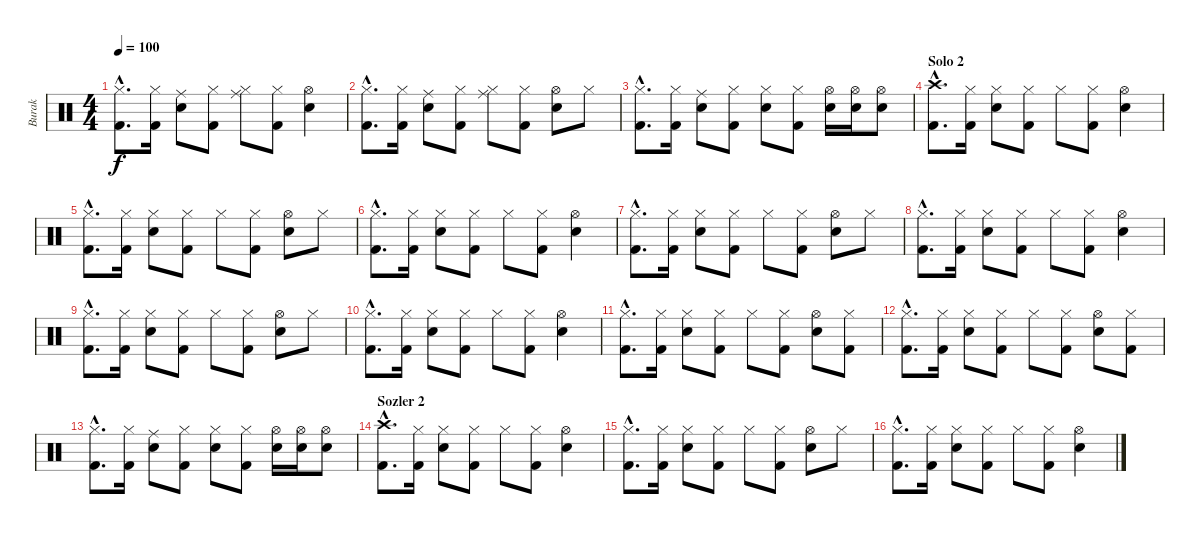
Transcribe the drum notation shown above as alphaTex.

\track ("Burak" "Burak") {instrument percussion}
\staff {score}
\articulation defaults
\ts (4 4)
\tempo 100
\clef neutral
\ks c
("Kick (hit) 2"{hac} "Hi-Hat (closed)"{hac}).8{d dy f} ("Kick (hit) 2" "Hi-Hat (closed)").16 ("Electric Snare (hit)" "Ride (middle)").8 ("Kick (hit) 2" "Hi-Hat (closed)").8 ("Ride (middle)" "Hi-Hat (closed)").8 ("Kick (hit) 2" "Hi-Hat (closed)").8 ("Electric Snare (hit)" "Hi-Hat (open)").4 |
("Kick (hit) 2"{hac} "Hi-Hat (closed)"{hac}).8{d} ("Kick (hit) 2" "Hi-Hat (closed)").16 ("Electric Snare (hit)" "Ride (middle)").8 ("Kick (hit) 2" "Hi-Hat (closed)").8 ("Ride (middle)" "Hi-Hat (closed)").8 ("Kick (hit) 2" "Hi-Hat (closed)").8 ("Electric Snare (hit)" "Hi-Hat (open)").8 "Hi-Hat (closed)".8 |
("Kick (hit) 2"{hac} "Hi-Hat (closed)"{hac}).8{d} ("Kick (hit) 2" "Hi-Hat (closed)").16 ("Electric Snare (hit)" "Ride (middle)").8 ("Kick (hit) 2" "Hi-Hat (closed)").8 ("Electric Snare (hit)" "Hi-Hat (closed)").8 ("Kick (hit) 2" "Hi-Hat (closed)").8 ("Electric Snare (hit)" "Hi-Hat (open)").16 ("Electric Snare (hit)" "Hi-Hat (open)").16 ("Electric Snare (hit)" "Hi-Hat (open)").8 |
\section ("" "Solo 2")
("Crash high (hit)"{hac} "Kick (hit) 2"{hac}).8{d} ("Kick (hit) 2" "Hi-Hat (closed)").16 ("Electric Snare (hit)" "Hi-Hat (closed)").8 ("Kick (hit) 2" "Hi-Hat (closed)").8 "Hi-Hat (closed)".8 ("Kick (hit) 2" "Hi-Hat (closed)").8 ("Electric Snare (hit)" "Hi-Hat (open)").4 |
("Kick (hit) 2"{hac} "Hi-Hat (closed)"{hac}).8{d} ("Kick (hit) 2" "Hi-Hat (closed)").16 ("Electric Snare (hit)" "Hi-Hat (closed)").8 ("Kick (hit) 2" "Hi-Hat (closed)").8 "Hi-Hat (closed)".8 ("Kick (hit) 2" "Hi-Hat (closed)").8 ("Electric Snare (hit)" "Hi-Hat (open)").8 "Hi-Hat (closed)".8 |
("Kick (hit) 2"{hac} "Hi-Hat (closed)"{hac}).8{d} ("Kick (hit) 2" "Hi-Hat (closed)").16 ("Electric Snare (hit)" "Hi-Hat (closed)").8 ("Kick (hit) 2" "Hi-Hat (closed)").8 "Hi-Hat (closed)".8 ("Kick (hit) 2" "Hi-Hat (closed)").8 ("Electric Snare (hit)" "Hi-Hat (open)").4 |
("Kick (hit) 2"{hac} "Hi-Hat (closed)"{hac}).8{d} ("Kick (hit) 2" "Hi-Hat (closed)").16 ("Electric Snare (hit)" "Hi-Hat (closed)").8 ("Kick (hit) 2" "Hi-Hat (closed)").8 "Hi-Hat (closed)".8 ("Kick (hit) 2" "Hi-Hat (closed)").8 ("Electric Snare (hit)" "Hi-Hat (open)").8 "Hi-Hat (closed)".8 |
("Kick (hit) 2"{hac} "Hi-Hat (closed)"{hac}).8{d} ("Kick (hit) 2" "Hi-Hat (closed)").16 ("Electric Snare (hit)" "Hi-Hat (closed)").8 ("Kick (hit) 2" "Hi-Hat (closed)").8 "Hi-Hat (closed)".8 ("Kick (hit) 2" "Hi-Hat (closed)").8 ("Electric Snare (hit)" "Hi-Hat (open)").4 |
("Kick (hit) 2"{hac} "Hi-Hat (closed)"{hac}).8{d} ("Kick (hit) 2" "Hi-Hat (closed)").16 ("Electric Snare (hit)" "Hi-Hat (closed)").8 ("Kick (hit) 2" "Hi-Hat (closed)").8 "Hi-Hat (closed)".8 ("Kick (hit) 2" "Hi-Hat (closed)").8 ("Electric Snare (hit)" "Hi-Hat (open)").8 "Hi-Hat (closed)".8 |
("Kick (hit) 2"{hac} "Hi-Hat (closed)"{hac}).8{d} ("Kick (hit) 2" "Hi-Hat (closed)").16 ("Electric Snare (hit)" "Hi-Hat (closed)").8 ("Kick (hit) 2" "Hi-Hat (closed)").8 "Hi-Hat (closed)".8 ("Kick (hit) 2" "Hi-Hat (closed)").8 ("Electric Snare (hit)" "Hi-Hat (open)").4 |
("Kick (hit) 2"{hac} "Hi-Hat (closed)"{hac}).8{d} ("Kick (hit) 2" "Hi-Hat (closed)").16 ("Electric Snare (hit)" "Hi-Hat (closed)").8 ("Kick (hit) 2" "Hi-Hat (closed)").8 "Hi-Hat (closed)".8 ("Kick (hit) 2" "Hi-Hat (closed)").8 ("Electric Snare (hit)" "Hi-Hat (open)").8 ("Kick (hit) 2" "Hi-Hat (closed)").8 |
("Kick (hit) 2"{hac} "Hi-Hat (closed)"{hac}).8{d} ("Kick (hit) 2" "Hi-Hat (closed)").16 ("Electric Snare (hit)" "Hi-Hat (closed)").8 ("Kick (hit) 2" "Hi-Hat (closed)").8 "Hi-Hat (closed)".8 ("Kick (hit) 2" "Hi-Hat (closed)").8 ("Electric Snare (hit)" "Hi-Hat (open)").8 ("Kick (hit) 2" "Hi-Hat (closed)").8 |
("Kick (hit) 2"{hac} "Hi-Hat (closed)"{hac}).8{d} ("Kick (hit) 2" "Hi-Hat (closed)").16 ("Electric Snare (hit)" "Ride (middle)").8 ("Kick (hit) 2" "Hi-Hat (closed)").8 ("Electric Snare (hit)" "Hi-Hat (closed)").8 ("Kick (hit) 2" "Hi-Hat (closed)").8 ("Electric Snare (hit)" "Hi-Hat (open)").16 ("Electric Snare (hit)" "Hi-Hat (open)").16 ("Electric Snare (hit)" "Hi-Hat (open)").8 |
\section ("" "Sozler 2")
("Crash high (hit)"{hac} "Kick (hit) 2"{hac}).8{d} ("Kick (hit) 2" "Hi-Hat (closed)").16 ("Electric Snare (hit)" "Hi-Hat (closed)").8 ("Kick (hit) 2" "Hi-Hat (closed)").8 "Hi-Hat (closed)".8 ("Kick (hit) 2" "Hi-Hat (closed)").8 ("Electric Snare (hit)" "Hi-Hat (open)").4 |
("Kick (hit) 2"{hac} "Hi-Hat (closed)"{hac}).8{d} ("Kick (hit) 2" "Hi-Hat (closed)").16 ("Electric Snare (hit)" "Hi-Hat (closed)").8 ("Kick (hit) 2" "Hi-Hat (closed)").8 "Hi-Hat (closed)".8 ("Kick (hit) 2" "Hi-Hat (closed)").8 ("Electric Snare (hit)" "Hi-Hat (open)").8 "Hi-Hat (closed)".8 |
("Kick (hit) 2"{hac} "Hi-Hat (closed)"{hac}).8{d} ("Kick (hit) 2" "Hi-Hat (closed)").16 ("Electric Snare (hit)" "Hi-Hat (closed)").8 ("Kick (hit) 2" "Hi-Hat (closed)").8 "Hi-Hat (closed)".8 ("Kick (hit) 2" "Hi-Hat (closed)").8 ("Electric Snare (hit)" "Hi-Hat (open)").4
